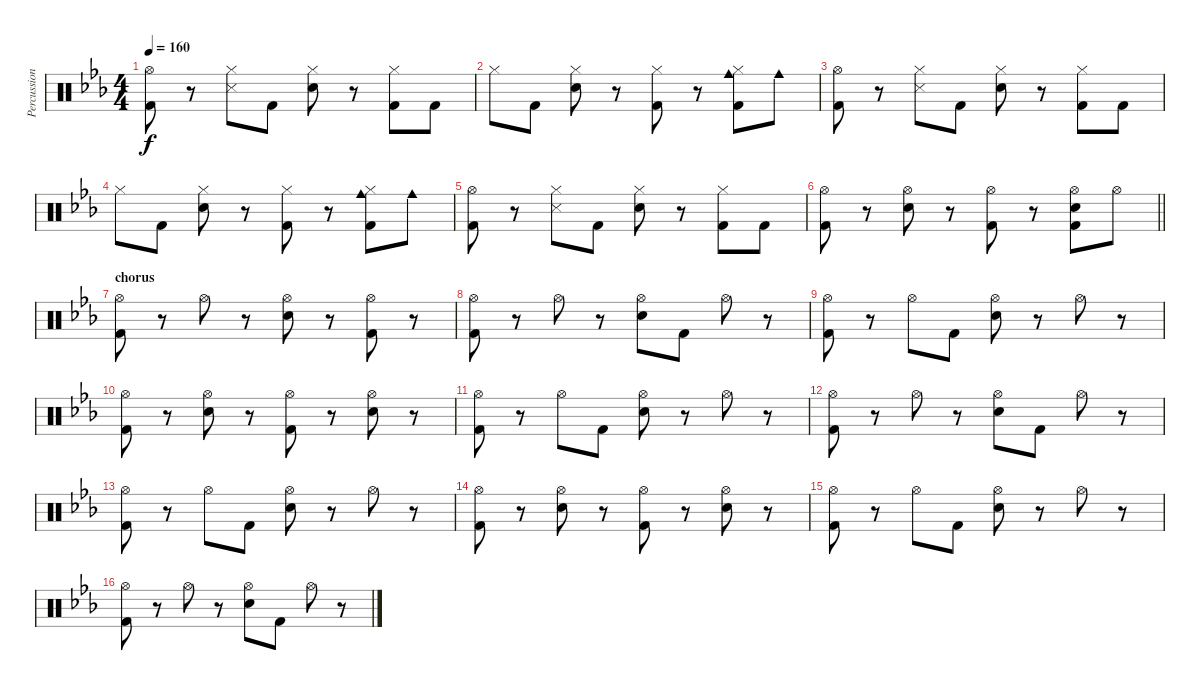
\track ("Percussion" "Percussion") {instrument percussion}
\staff {score}
\articulation defaults
\ts (4 4)
\tempo 160
\clef neutral
\ks cminor
("Hi-Hat (open)" "Kick (hit) 2").8{dy f} r.8 ("Hi-Hat (closed)" "Snare (side stick) 3").8 "Kick (hit) 2".8 ("Hi-Hat (closed)" "Snare (hit) 2").8 r.8 ("Hi-Hat (closed)" "Kick (hit) 2").8 "Kick (hit) 2".8 |
"Hi-Hat (closed)".8 "Kick (hit) 2".8 ("Hi-Hat (closed)" "Snare (hit) 2").8 r.8 ("Hi-Hat (closed)" "Kick (hit) 2").8 r.8 ("Cowbell medium (hit)" "Hi-Hat (closed)" "Kick (hit) 2").8 "Cowbell medium (hit)".8 |
("Hi-Hat (open)" "Kick (hit) 2").8 r.8 ("Hi-Hat (closed)" "Snare (side stick) 3").8 "Kick (hit) 2".8 ("Hi-Hat (closed)" "Snare (hit) 2").8 r.8 ("Hi-Hat (closed)" "Kick (hit) 2").8 "Kick (hit) 2".8 |
"Hi-Hat (closed)".8 "Kick (hit) 2".8 ("Hi-Hat (closed)" "Snare (hit) 2").8 r.8 ("Hi-Hat (closed)" "Kick (hit) 2").8 r.8 ("Cowbell medium (hit)" "Hi-Hat (closed)" "Kick (hit) 2").8 "Cowbell medium (hit)".8 |
("Hi-Hat (open)" "Kick (hit) 2").8 r.8 ("Hi-Hat (closed)" "Snare (side stick) 3").8 "Kick (hit) 2".8 ("Hi-Hat (closed)" "Snare (hit) 2").8 r.8 ("Hi-Hat (closed)" "Kick (hit) 2").8 "Kick (hit) 2".8 |
\barLineRight lightlight
("Hi-Hat (open)" "Kick (hit) 2").8 r.8 ("Hi-Hat (open)" "Snare (hit) 2").8 r.8 ("Hi-Hat (open)" "Kick (hit) 2").8 r.8 ("Hi-Hat (open)" "Snare (hit) 2" "Kick (hit) 2").8 "Hi-Hat (open)".8 |
\section ("" "chorus")
("Hi-Hat (open)" "Kick (hit) 2").8 r.8 "Hi-Hat (open)".8 r.8 ("Hi-Hat (open)" "Snare (hit) 2").8 r.8 ("Hi-Hat (open)" "Kick (hit) 2").8 r.8 |
("Hi-Hat (open)" "Kick (hit) 2").8 r.8 "Hi-Hat (open)".8 r.8 ("Hi-Hat (open)" "Snare (hit) 2").8 "Kick (hit) 2".8 "Hi-Hat (open)".8 r.8 |
("Hi-Hat (open)" "Kick (hit) 2").8 r.8 "Hi-Hat (open)".8 "Kick (hit) 2".8 ("Hi-Hat (open)" "Snare (hit) 2").8 r.8 "Hi-Hat (open)".8 r.8 |
("Hi-Hat (open)" "Kick (hit) 2").8 r.8 ("Hi-Hat (open)" "Snare (hit) 2").8 r.8 ("Hi-Hat (open)" "Kick (hit) 2").8 r.8 ("Hi-Hat (open)" "Snare (hit) 2").8 r.8 |
("Hi-Hat (open)" "Kick (hit) 2").8 r.8 "Hi-Hat (open)".8 "Kick (hit) 2".8 ("Hi-Hat (open)" "Snare (hit) 2").8 r.8 "Hi-Hat (open)".8 r.8 |
("Hi-Hat (open)" "Kick (hit) 2").8 r.8 "Hi-Hat (open)".8 r.8 ("Hi-Hat (open)" "Snare (hit) 2").8 "Kick (hit) 2".8 "Hi-Hat (open)".8 r.8 |
("Hi-Hat (open)" "Kick (hit) 2").8 r.8 "Hi-Hat (open)".8 "Kick (hit) 2".8 ("Hi-Hat (open)" "Snare (hit) 2").8 r.8 "Hi-Hat (open)".8 r.8 |
("Hi-Hat (open)" "Kick (hit) 2").8 r.8 ("Hi-Hat (open)" "Snare (hit) 2").8 r.8 ("Hi-Hat (open)" "Kick (hit) 2").8 r.8 ("Hi-Hat (open)" "Snare (hit) 2").8 r.8 |
("Hi-Hat (open)" "Kick (hit) 2").8 r.8 "Hi-Hat (open)".8 "Kick (hit) 2".8 ("Hi-Hat (open)" "Snare (hit) 2").8 r.8 "Hi-Hat (open)".8 r.8 |
("Hi-Hat (open)" "Kick (hit) 2").8 r.8 "Hi-Hat (open)".8 r.8 ("Hi-Hat (open)" "Snare (hit) 2").8 "Kick (hit) 2".8 "Hi-Hat (open)".8 r.8
